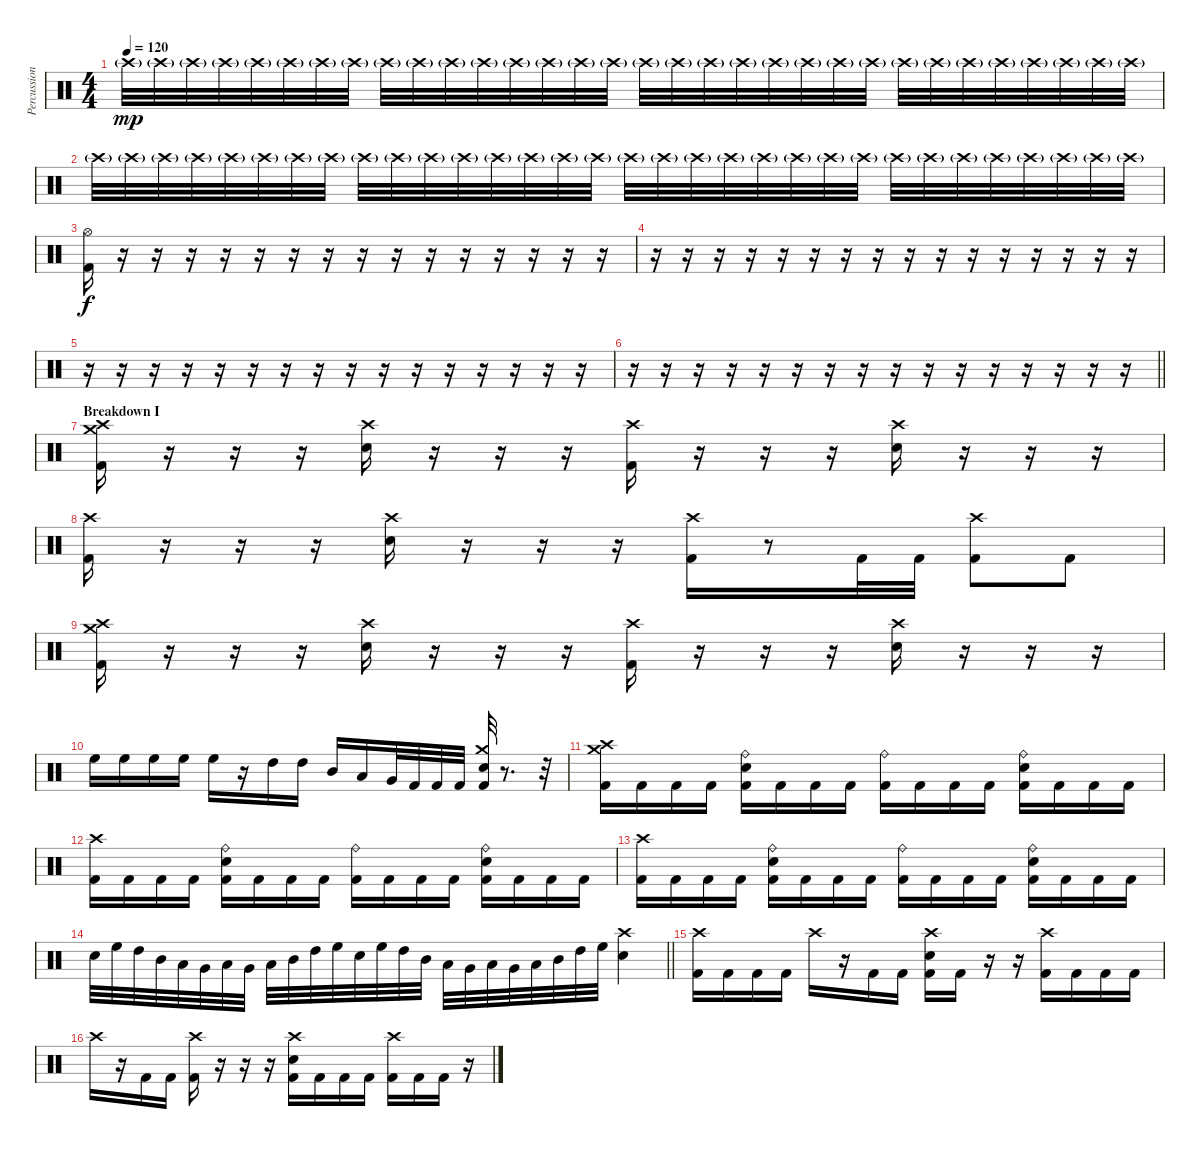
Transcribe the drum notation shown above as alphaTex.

\track ("Percussion" "Percussion") {instrument percussion}
\staff {score}
\articulation defaults
\ts (4 4)
\tempo 120
\clef neutral
\ks c "Crash high (hit)"{g}.32{dy mp} "Crash high (hit)"{g}.32 "Crash high (hit)"{g}.32 "Crash high (hit)"{g}.32 "Crash high (hit)"{g}.32 "Crash high (hit)"{g}.32 "Crash high (hit)"{g}.32 "Crash high (hit)"{g}.32 "Crash high (hit)"{g}.32 "Crash high (hit)"{g}.32 "Crash high (hit)"{g}.32 "Crash high (hit)"{g}.32 "Crash high (hit)"{g}.32 "Crash high (hit)"{g}.32 "Crash high (hit)"{g}.32 "Crash high (hit)"{g}.32 "Crash high (hit)"{g}.32 "Crash high (hit)"{g}.32 "Crash high (hit)"{g}.32 "Crash high (hit)"{g}.32 "Crash high (hit)"{g}.32 "Crash high (hit)"{g}.32 "Crash high (hit)"{g}.32 "Crash high (hit)"{g}.32 "Crash high (hit)"{g}.32 "Crash high (hit)"{g}.32 "Crash high (hit)"{g}.32 "Crash high (hit)"{g}.32 "Crash high (hit)"{g}.32 "Crash high (hit)"{g}.32 "Crash high (hit)"{g}.32 "Crash high (hit)"{g}.32
|
"Crash high (hit)"{g}.32 "Crash high (hit)"{g}.32 "Crash high (hit)"{g}.32 "Crash high (hit)"{g}.32 "Crash high (hit)"{g}.32 "Crash high (hit)"{g}.32 "Crash high (hit)"{g}.32 "Crash high (hit)"{g}.32 "Crash high (hit)"{g}.32 "Crash high (hit)"{g}.32 "Crash high (hit)"{g}.32 "Crash high (hit)"{g}.32 "Crash high (hit)"{g}.32 "Crash high (hit)"{g}.32 "Crash high (hit)"{g}.32 "Crash high (hit)"{g}.32 "Crash high (hit)"{g}.32 "Crash high (hit)"{g}.32 "Crash high (hit)"{g}.32 "Crash high (hit)"{g}.32 "Crash high (hit)"{g}.32 "Crash high (hit)"{g}.32 "Crash high (hit)"{g}.32 "Crash high (hit)"{g}.32 "Crash high (hit)"{g}.32 "Crash high (hit)"{g}.32 "Crash high (hit)"{g}.32 "Crash high (hit)"{g}.32 "Crash high (hit)"{g}.32 "Crash high (hit)"{g}.32 "Crash high (hit)"{g}.32 "Crash high (hit)"{g}.32 |
("Hi-Hat (open)" "Kick (hit) 2").16{dy f} r.16 r.16 r.16 r.16 r.16 r.16 r.16 r.16 r.16 r.16 r.16 r.16 r.16 r.16 r.16 |
r.16 r.16 r.16 r.16 r.16 r.16 r.16 r.16 r.16 r.16 r.16 r.16 r.16 r.16 r.16 r.16 |
r.16 r.16 r.16 r.16 r.16 r.16 r.16 r.16 r.16 r.16 r.16 r.16 r.16 r.16 r.16 r.16 |
\barLineRight lightlight
r.16 r.16 r.16 r.16 r.16 r.16 r.16 r.16 r.16 r.16 r.16 r.16 r.16 r.16 r.16 r.16 |
\section ("" "Breakdown I")
("Crash medium (hit)" "Crash high (hit)" "Kick (hit) 2").16 r.16 r.16 r.16 ("Crash high (hit)" "Electric Snare (hit)").16 r.16 r.16 r.16 ("Crash high (hit)" "Kick (hit) 2").16 r.16 r.16 r.16 ("Crash high (hit)" "Electric Snare (hit)").16 r.16 r.16 r.16 |
("Crash high (hit)" "Kick (hit) 2").16 r.16 r.16 r.16 ("Crash high (hit)" "Electric Snare (hit)").16 r.16 r.16 r.16 ("Crash high (hit)" "Kick (hit) 2").16 r.8 "Kick (hit) 2".32 "Kick (hit) 2".32 ("Crash high (hit)" "Kick (hit) 2").8 "Kick (hit) 2".8 |
("Crash medium (hit)" "Crash high (hit)" "Kick (hit) 2").16 r.16 r.16 r.16 ("Crash high (hit)" "Electric Snare (hit)").16 r.16 r.16 r.16 ("Crash high (hit)" "Kick (hit) 2").16 r.16 r.16 r.16 ("Crash high (hit)" "Electric Snare (hit)").16 r.16 r.16 r.16 |
"High Floor Tom (hit)".16 "High Floor Tom (hit)".16 "High Floor Tom (hit)".16 "High Floor Tom (hit)".16 "High Floor Tom (hit)".16 r.16 "High Tom (hit)".16 "High Tom (hit)".16 "Mid Tom (hit)".16 "Low Tom (hit)".16 "Very Low Tom (hit)".32 "Kick (hit) 2".32 "Kick (hit) 2".32 "Kick (hit) 2".32 ("Crash medium (hit)" "Electric Snare (hit)" "Kick (hit) 2").32 r.8{d} r.32 |
("Crash medium (hit)" "Crash high (hit)" "Kick (hit) 2").16 "Kick (hit) 2".16 "Kick (hit) 2".16 "Kick (hit) 2".16 ("Ride (bell)" "Electric Snare (hit)" "Kick (hit) 2").16 "Kick (hit) 2".16 "Kick (hit) 2".16 "Kick (hit) 2".16 ("Ride (bell)" "Kick (hit) 2").16 "Kick (hit) 2".16 "Kick (hit) 2".16 "Kick (hit) 2".16 ("Ride (bell)" "Electric Snare (hit)" "Kick (hit) 2").16 "Kick (hit) 2".16 "Kick (hit) 2".16 "Kick (hit) 2".16 |
("Crash high (hit)" "Kick (hit) 2").16 "Kick (hit) 2".16 "Kick (hit) 2".16 "Kick (hit) 2".16 ("Ride (bell)" "Electric Snare (hit)" "Kick (hit) 2").16 "Kick (hit) 2".16 "Kick (hit) 2".16 "Kick (hit) 2".16 ("Ride (bell)" "Kick (hit) 2").16 "Kick (hit) 2".16 "Kick (hit) 2".16 "Kick (hit) 2".16 ("Ride (bell)" "Electric Snare (hit)" "Kick (hit) 2").16 "Kick (hit) 2".16 "Kick (hit) 2".16 "Kick (hit) 2".16 |
("Crash high (hit)" "Kick (hit) 2").16 "Kick (hit) 2".16 "Kick (hit) 2".16 "Kick (hit) 2".16 ("Ride (bell)" "Electric Snare (hit)" "Kick (hit) 2").16 "Kick (hit) 2".16 "Kick (hit) 2".16 "Kick (hit) 2".16 ("Ride (bell)" "Kick (hit) 2").16 "Kick (hit) 2".16 "Kick (hit) 2".16 "Kick (hit) 2".16 ("Ride (bell)" "Electric Snare (hit)" "Kick (hit) 2").16 "Kick (hit) 2".16 "Kick (hit) 2".16 "Kick (hit) 2".16 |
\barLineRight lightlight "Electric Snare (hit)".32 "High Floor Tom (hit)".32 "High Tom (hit)".32 "Mid Tom (hit)".32 "Low Tom (hit)".32 "Very Low Tom (hit)".32 "Low Floor Tom (hit)".32 "Very Low Tom (hit)".32 "Low Tom (hit)".32 "Mid Tom (hit)".32 "High Tom (hit)".32 "High Floor Tom (hit)".32 "Electric Snare (hit)".32 "High Floor Tom (hit)".32 "High Tom (hit)".32 "Mid Tom (hit)".32 "Low Tom (hit)".32 "Very Low Tom (hit)".32 "Low Floor Tom (hit)".32 "Very Low Tom (hit)".32 "Low Tom (hit)".32 "Mid Tom (hit)".32 "High Tom (hit)".32 "High Floor Tom (hit)".32
("Crash high (hit)" "Electric Snare (hit)").4 |
("Crash high (hit)" "Kick (hit) 2").16 "Kick (hit) 2".16 "Kick (hit) 2".16 "Kick (hit) 2".16 "Crash high (hit)".16 r.16 "Kick (hit) 2".16 "Kick (hit) 2".16 ("Crash high (hit)" "Electric Snare (hit)" "Kick (hit) 2").16 "Kick (hit) 2".16 r.16 r.16 ("Crash high (hit)" "Kick (hit) 2").16 "Kick (hit) 2".16 "Kick (hit) 2".16 "Kick (hit) 2".16 |
"Crash high (hit)".16 r.16 "Kick (hit) 2".16 "Kick (hit) 2".16 ("Crash high (hit)" "Kick (hit) 2").16 r.16 r.16 r.16 ("Crash high (hit)" "Electric Snare (hit)" "Kick (hit) 2").16 "Kick (hit) 2".16 "Kick (hit) 2".16 "Kick (hit) 2".16 ("Crash high (hit)" "Kick (hit) 2").16 "Kick (hit) 2".16 "Kick (hit) 2".16 r.16
